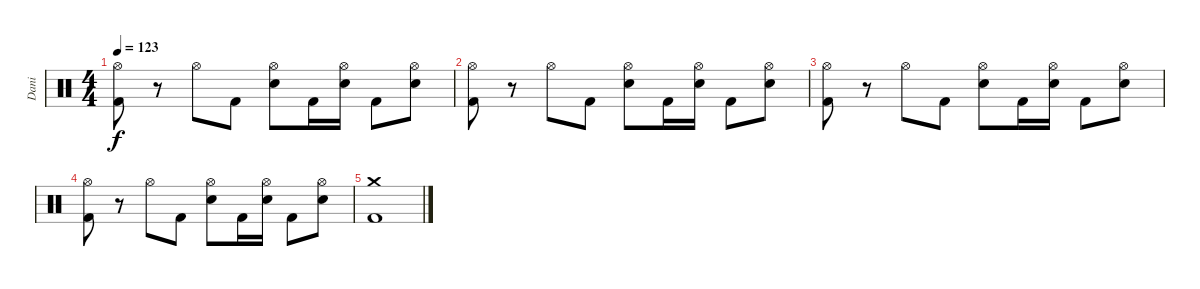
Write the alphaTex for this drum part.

\track ("Dani" "Dani") {instrument percussion}
\staff {score}
\articulation defaults
\ts (4 4)
\tempo 123
\clef neutral
\ks c
("Hi-Hat (open)" "Kick (hit) 2").8{dy f} r.8 "Hi-Hat (open)".8 "Kick (hit) 2".8 ("Hi-Hat (open)" "Electric Snare (hit)").8 "Kick (hit) 2".16 ("Hi-Hat (open)" "Electric Snare (hit)").16 "Kick (hit) 2".8 ("Hi-Hat (open)" "Electric Snare (hit)").8 |
("Hi-Hat (open)" "Kick (hit) 2").8 r.8 "Hi-Hat (open)".8 "Kick (hit) 2".8 ("Hi-Hat (open)" "Electric Snare (hit)").8 "Kick (hit) 2".16 ("Hi-Hat (open)" "Electric Snare (hit)").16 "Kick (hit) 2".8 ("Hi-Hat (open)" "Electric Snare (hit)").8 |
("Hi-Hat (open)" "Kick (hit) 2").8 r.8 "Hi-Hat (open)".8 "Kick (hit) 2".8 ("Hi-Hat (open)" "Electric Snare (hit)").8 "Kick (hit) 2".16 ("Hi-Hat (open)" "Electric Snare (hit)").16 "Kick (hit) 2".8 ("Hi-Hat (open)" "Electric Snare (hit)").8 |
("Hi-Hat (open)" "Kick (hit) 2").8 r.8 "Hi-Hat (open)".8 "Kick (hit) 2".8 ("Hi-Hat (open)" "Electric Snare (hit)").8 "Kick (hit) 2".16 ("Hi-Hat (open)" "Electric Snare (hit)").16 "Kick (hit) 2".8 ("Hi-Hat (open)" "Electric Snare (hit)").8 |
("Crash medium (hit)" "Kick (hit) 2").1
